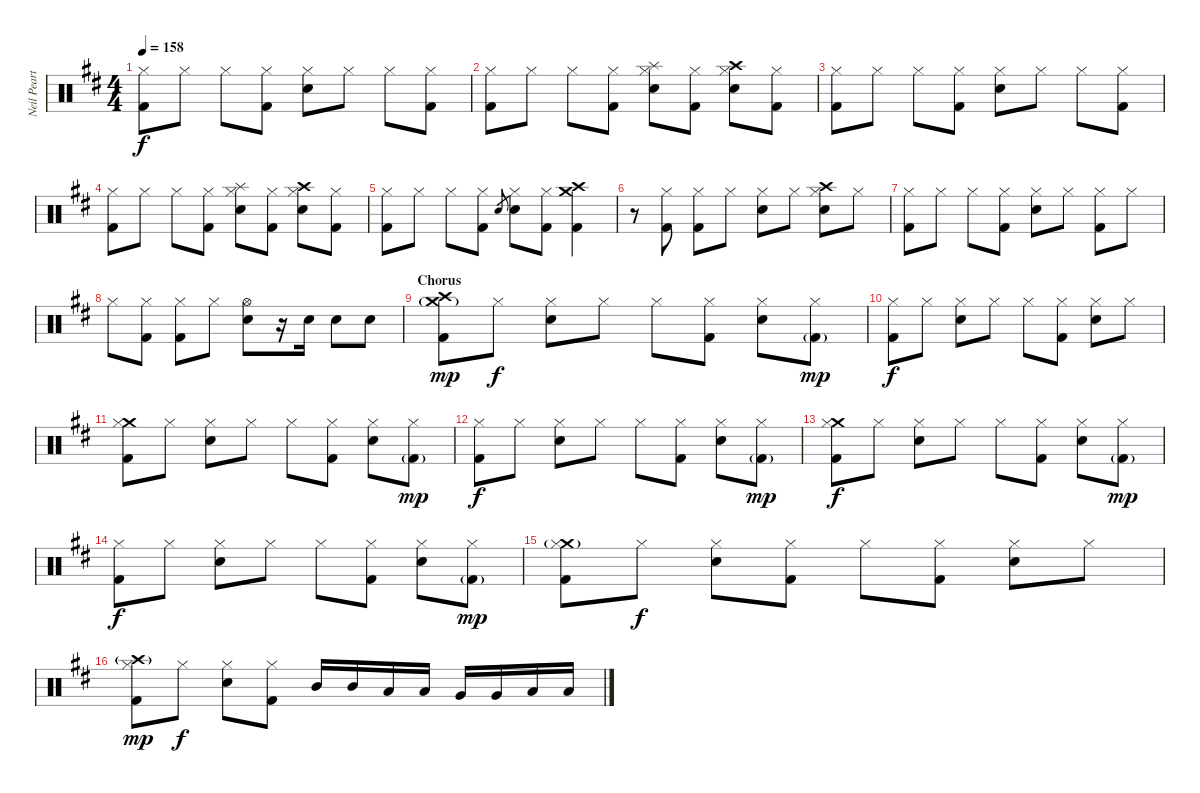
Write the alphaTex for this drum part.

\track ("Neil Peart (drums)" "Neil Peart") {instrument percussion}
\staff {score}
\articulation defaults
\ts (4 4)
\tempo 158
\clef neutral
\ks bminor
("Hi-Hat (closed)" "Kick (hit) 2").8{dy f} "Hi-Hat (closed)".8 "Hi-Hat (closed)".8 ("Hi-Hat (closed)" "Kick (hit) 2").8 ("Hi-Hat (closed)" "Electric Snare (hit)").8 "Hi-Hat (closed)".8 "Hi-Hat (closed)".8 ("Hi-Hat (closed)" "Kick (hit) 2").8 |
("Hi-Hat (closed)" "Kick (hit) 2").8 "Hi-Hat (closed)".8 "Hi-Hat (closed)".8 ("Hi-Hat (closed)" "Kick (hit) 2").8 ("Splash (hit)" "Hi-Hat (closed)" "Electric Snare (hit)").8 ("Hi-Hat (closed)" "Kick (hit) 2").8 ("Crash high (hit)" "Hi-Hat (closed)" "Electric Snare (hit)").8 ("Hi-Hat (closed)" "Kick (hit) 2").8 |
("Hi-Hat (closed)" "Kick (hit) 2").8 "Hi-Hat (closed)".8 "Hi-Hat (closed)".8 ("Hi-Hat (closed)" "Kick (hit) 2").8 ("Hi-Hat (closed)" "Electric Snare (hit)").8 "Hi-Hat (closed)".8 "Hi-Hat (closed)".8 ("Hi-Hat (closed)" "Kick (hit) 2").8 |
("Hi-Hat (closed)" "Kick (hit) 2").8 "Hi-Hat (closed)".8 "Hi-Hat (closed)".8 ("Hi-Hat (closed)" "Kick (hit) 2").8 ("Splash (hit)" "Hi-Hat (closed)" "Electric Snare (hit)").8 ("Hi-Hat (closed)" "Kick (hit) 2").8 ("Crash high (hit)" "Hi-Hat (closed)" "Electric Snare (hit)").8 ("Hi-Hat (closed)" "Kick (hit) 2").8 |
("Hi-Hat (closed)" "Kick (hit) 2").8 "Hi-Hat (closed)".8 "Hi-Hat (closed)".8 ("Hi-Hat (closed)" "Kick (hit) 2").8 "Electric Snare (hit)".8{gr} ("Hi-Hat (closed)" "Electric Snare (hit)").8 ("Hi-Hat (closed)" "Kick (hit) 2").8 ("Crash medium (hit)" "Crash high (hit)" "Kick (hit) 2").4 |
r.8 ("Hi-Hat (closed)" "Kick (hit) 2").8 ("Hi-Hat (closed)" "Kick (hit) 2").8 "Hi-Hat (closed)".8 ("Hi-Hat (closed)" "Electric Snare (hit)").8 "Hi-Hat (closed)".8 ("Crash high (hit)" "Hi-Hat (closed)" "Electric Snare (hit)").8 "Hi-Hat (closed)".8 |
("Hi-Hat (closed)" "Kick (hit) 2").8 "Hi-Hat (closed)".8 "Hi-Hat (closed)".8 ("Hi-Hat (closed)" "Kick (hit) 2").8 ("Hi-Hat (closed)" "Electric Snare (hit)").8 "Hi-Hat (closed)".8 ("Hi-Hat (closed)" "Kick (hit) 2").8 "Hi-Hat (closed)".8 |
"Hi-Hat (closed)".8 ("Hi-Hat (closed)" "Kick (hit) 2").8 ("Hi-Hat (closed)" "Kick (hit) 2").8 "Hi-Hat (closed)".8 ("Hi-Hat (open)" "Electric Snare (hit)").8 r.16 "Electric Snare (hit)".16 "Electric Snare (hit)".8 "Electric Snare (hit)".8 |
\section ("" "Chorus")
("Crash medium (hit)"{g} "Crash high (hit)" "Kick (hit) 2").8{dy mp} "Hi-Hat (closed)".8{dy f} ("Hi-Hat (closed)" "Electric Snare (hit)").8 "Hi-Hat (closed)".8 "Hi-Hat (closed)".8 ("Hi-Hat (closed)" "Kick (hit) 2").8 ("Hi-Hat (closed)" "Electric Snare (hit)").8 ("Hi-Hat (closed)" "Kick (hit) 2"{g}).8{dy mp} |
("Hi-Hat (closed)" "Kick (hit) 2").8{dy f} "Hi-Hat (closed)".8 ("Hi-Hat (closed)" "Electric Snare (hit)").8 "Hi-Hat (closed)".8 "Hi-Hat (closed)".8 ("Hi-Hat (closed)" "Kick (hit) 2").8 ("Hi-Hat (closed)" "Electric Snare (hit)").8 "Hi-Hat (closed)".8 |
("Crash medium (hit)" "Hi-Hat (closed)" "Kick (hit) 2").8 "Hi-Hat (closed)".8 ("Hi-Hat (closed)" "Electric Snare (hit)").8 "Hi-Hat (closed)".8 "Hi-Hat (closed)".8 ("Hi-Hat (closed)" "Kick (hit) 2").8 ("Hi-Hat (closed)" "Electric Snare (hit)").8 ("Hi-Hat (closed)" "Kick (hit) 2"{g}).8{dy mp} |
("Hi-Hat (closed)" "Kick (hit) 2").8{dy f} "Hi-Hat (closed)".8 ("Hi-Hat (closed)" "Electric Snare (hit)").8 "Hi-Hat (closed)".8 "Hi-Hat (closed)".8 ("Hi-Hat (closed)" "Kick (hit) 2").8 ("Hi-Hat (closed)" "Electric Snare (hit)").8 ("Hi-Hat (closed)" "Kick (hit) 2"{g}).8{dy mp} |
("Crash medium (hit)" "Hi-Hat (closed)" "Kick (hit) 2").8{dy f} "Hi-Hat (closed)".8 ("Hi-Hat (closed)" "Electric Snare (hit)").8 "Hi-Hat (closed)".8 "Hi-Hat (closed)".8 ("Hi-Hat (closed)" "Kick (hit) 2").8 ("Hi-Hat (closed)" "Electric Snare (hit)").8 ("Hi-Hat (closed)" "Kick (hit) 2"{g}).8{dy mp} |
("Hi-Hat (closed)" "Kick (hit) 2").8{dy f} "Hi-Hat (closed)".8 ("Hi-Hat (closed)" "Electric Snare (hit)").8 "Hi-Hat (closed)".8 "Hi-Hat (closed)".8 ("Hi-Hat (closed)" "Kick (hit) 2").8 ("Hi-Hat (closed)" "Electric Snare (hit)").8 ("Hi-Hat (closed)" "Kick (hit) 2"{g}).8{dy mp} |
("Crash medium (hit)"{g} "Hi-Hat (closed)" "Kick (hit) 2").8 "Hi-Hat (closed)".8{dy f} ("Hi-Hat (closed)" "Electric Snare (hit)").8 ("Hi-Hat (closed)" "Kick (hit) 2").8 "Hi-Hat (closed)".8 ("Hi-Hat (closed)" "Kick (hit) 2").8 ("Hi-Hat (closed)" "Electric Snare (hit)").8 "Hi-Hat (closed)".8 |
("Crash high (hit)"{g} "Hi-Hat (closed)" "Kick (hit) 2").8{dy mp} "Hi-Hat (closed)".8{dy f} ("Hi-Hat (closed)" "Electric Snare (hit)").8 ("Hi-Hat (closed)" "Kick (hit) 2").8 "Mid Tom (hit)".16 "Mid Tom (hit)".16 "Low Tom (hit)".16 "Low Tom (hit)".16 "Very Low Tom (hit)".16 "Very Low Tom (hit)".16 "Low Floor Tom (hit)".16 "Low Floor Tom (hit)".16
